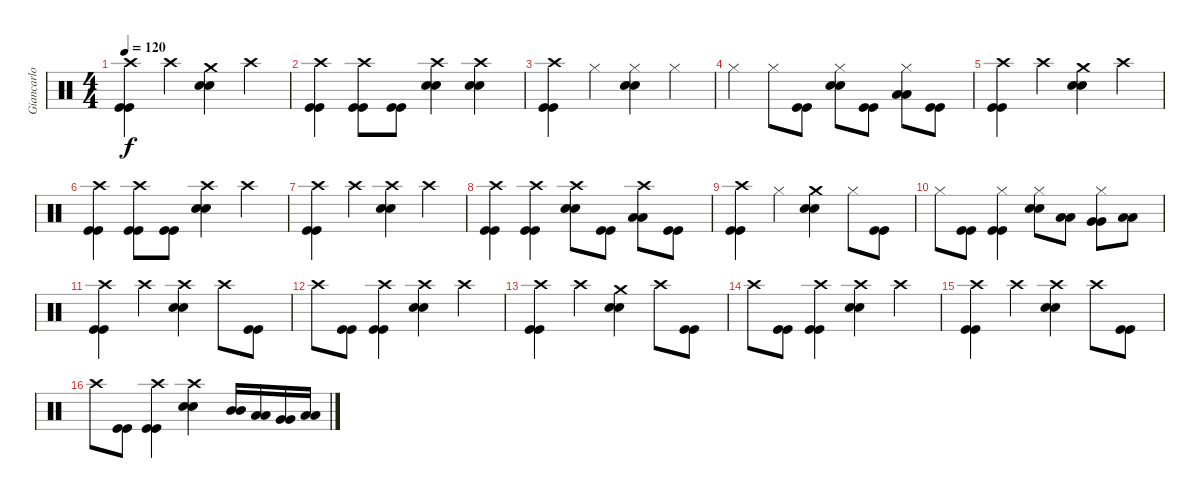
\track ("Giancarlo Autenzio - Drums" "Giancarlo ") {instrument percussion}
\staff {score}
\articulation defaults
\ts (4 4)
\tempo 120
\clef neutral
\ks c
("Kick (hit)" "Kick (hit)" "Crash high (hit)").4{dy f} "Crash high (hit)".4 ("Electric Snare (hit)" "Electric Snare (hit)" "Crash medium (hit)").4 "Crash high (hit)".4 |
("Kick (hit)" "Kick (hit)" "Crash high (hit)").4 ("Kick (hit)" "Kick (hit)" "Crash high (hit)").8 ("Kick (hit)" "Kick (hit)").8 ("Electric Snare (hit)" "Electric Snare (hit)" "Crash high (hit)").4 ("Electric Snare (hit)" "Electric Snare (hit)" "Crash high (hit)").4 |
("Kick (hit)" "Kick (hit)" "Crash high (hit)").4 "Hi-Hat (closed)".4 ("Electric Snare (hit)" "Electric Snare (hit)" "Hi-Hat (closed)").4 "Hi-Hat (closed)".4 |
"Hi-Hat (closed)".4 "Hi-Hat (closed)".8 ("Kick (hit)" "Kick (hit)").8 ("Electric Snare (hit)" "Electric Snare (hit)" "Hi-Hat (closed)").8 ("Kick (hit)" "Kick (hit)").8 ("Low Tom (hit)" "Low Tom (hit)" "Hi-Hat (closed)").8 ("Kick (hit)" "Kick (hit)").8 |
("Kick (hit)" "Kick (hit)" "Crash high (hit)").4 "Crash high (hit)".4 ("Electric Snare (hit)" "Electric Snare (hit)" "Crash medium (hit)").4 "Crash high (hit)".4 |
("Kick (hit)" "Kick (hit)" "Crash high (hit)").4 ("Kick (hit)" "Kick (hit)" "Crash high (hit)").8 ("Kick (hit)" "Kick (hit)").8 ("Electric Snare (hit)" "Electric Snare (hit)" "Crash high (hit)").4 "Crash high (hit)".4 |
("Kick (hit)" "Kick (hit)" "Crash high (hit)").4 "Crash high (hit)".4 ("Electric Snare (hit)" "Electric Snare (hit)" "Crash high (hit)").4 "Crash high (hit)".4 |
("Kick (hit)" "Kick (hit)" "Crash high (hit)").4 ("Kick (hit)" "Kick (hit)" "Crash high (hit)").4 ("Electric Snare (hit)" "Electric Snare (hit)" "Crash high (hit)").8 ("Kick (hit)" "Kick (hit)").8 ("Low Tom (hit)" "Low Tom (hit)" "Crash high (hit)").8 ("Kick (hit)" "Kick (hit)").8 |
("Kick (hit)" "Kick (hit)" "Crash high (hit)").4 "Hi-Hat (closed)".4 ("Electric Snare (hit)" "Electric Snare (hit)" "Crash medium (hit)").4 "Hi-Hat (closed)".8 ("Kick (hit)" "Kick (hit)").8 |
"Hi-Hat (closed)".8 ("Kick (hit)" "Kick (hit)").8 ("Kick (hit)" "Kick (hit)" "Hi-Hat (closed)").4 ("Electric Snare (hit)" "Electric Snare (hit)" "Hi-Hat (closed)").8 ("Low Tom (hit)" "Low Tom (hit)").8 ("Very Low Tom (hit)" "Very Low Tom (hit)" "Hi-Hat (closed)").8 ("Low Floor Tom (hit)" "Low Floor Tom (hit)").8 |
("Kick (hit)" "Kick (hit)" "Crash high (hit)").4 "Crash high (hit)".4 ("Electric Snare (hit)" "Electric Snare (hit)" "Crash high (hit)").4 "Crash high (hit)".8 ("Kick (hit)" "Kick (hit)").8 |
"Crash high (hit)".8 ("Kick (hit)" "Kick (hit)").8 ("Kick (hit)" "Kick (hit)" "Crash high (hit)").4 ("Electric Snare (hit)" "Electric Snare (hit)" "Crash high (hit)").4 "Crash high (hit)".4 |
("Kick (hit)" "Kick (hit)" "Crash high (hit)").4 "Crash high (hit)".4 ("Electric Snare (hit)" "Electric Snare (hit)" "Crash medium (hit)").4 "Crash high (hit)".8 ("Kick (hit)" "Kick (hit)").8 |
"Crash high (hit)".8 ("Kick (hit)" "Kick (hit)").8 ("Kick (hit)" "Kick (hit)" "Crash high (hit)").4 ("Electric Snare (hit)" "Electric Snare (hit)" "Crash high (hit)").4 "Crash high (hit)".4 |
("Kick (hit)" "Kick (hit)" "Crash high (hit)").4 "Crash high (hit)".4 ("Electric Snare (hit)" "Electric Snare (hit)" "Crash high (hit)").4 "Crash high (hit)".8 ("Kick (hit)" "Kick (hit)").8 |
"Crash high (hit)".8 ("Kick (hit)" "Kick (hit)").8 ("Kick (hit)" "Kick (hit)" "Crash high (hit)").4 ("Electric Snare (hit)" "Electric Snare (hit)" "Crash high (hit)").4 ("Mid Tom (hit)" "Mid Tom (hit)").16 ("Low Tom (hit)" "Low Tom (hit)").16 ("Very Low Tom (hit)" "Very Low Tom (hit)").16 ("Low Floor Tom (hit)" "Low Floor Tom (hit)").16
